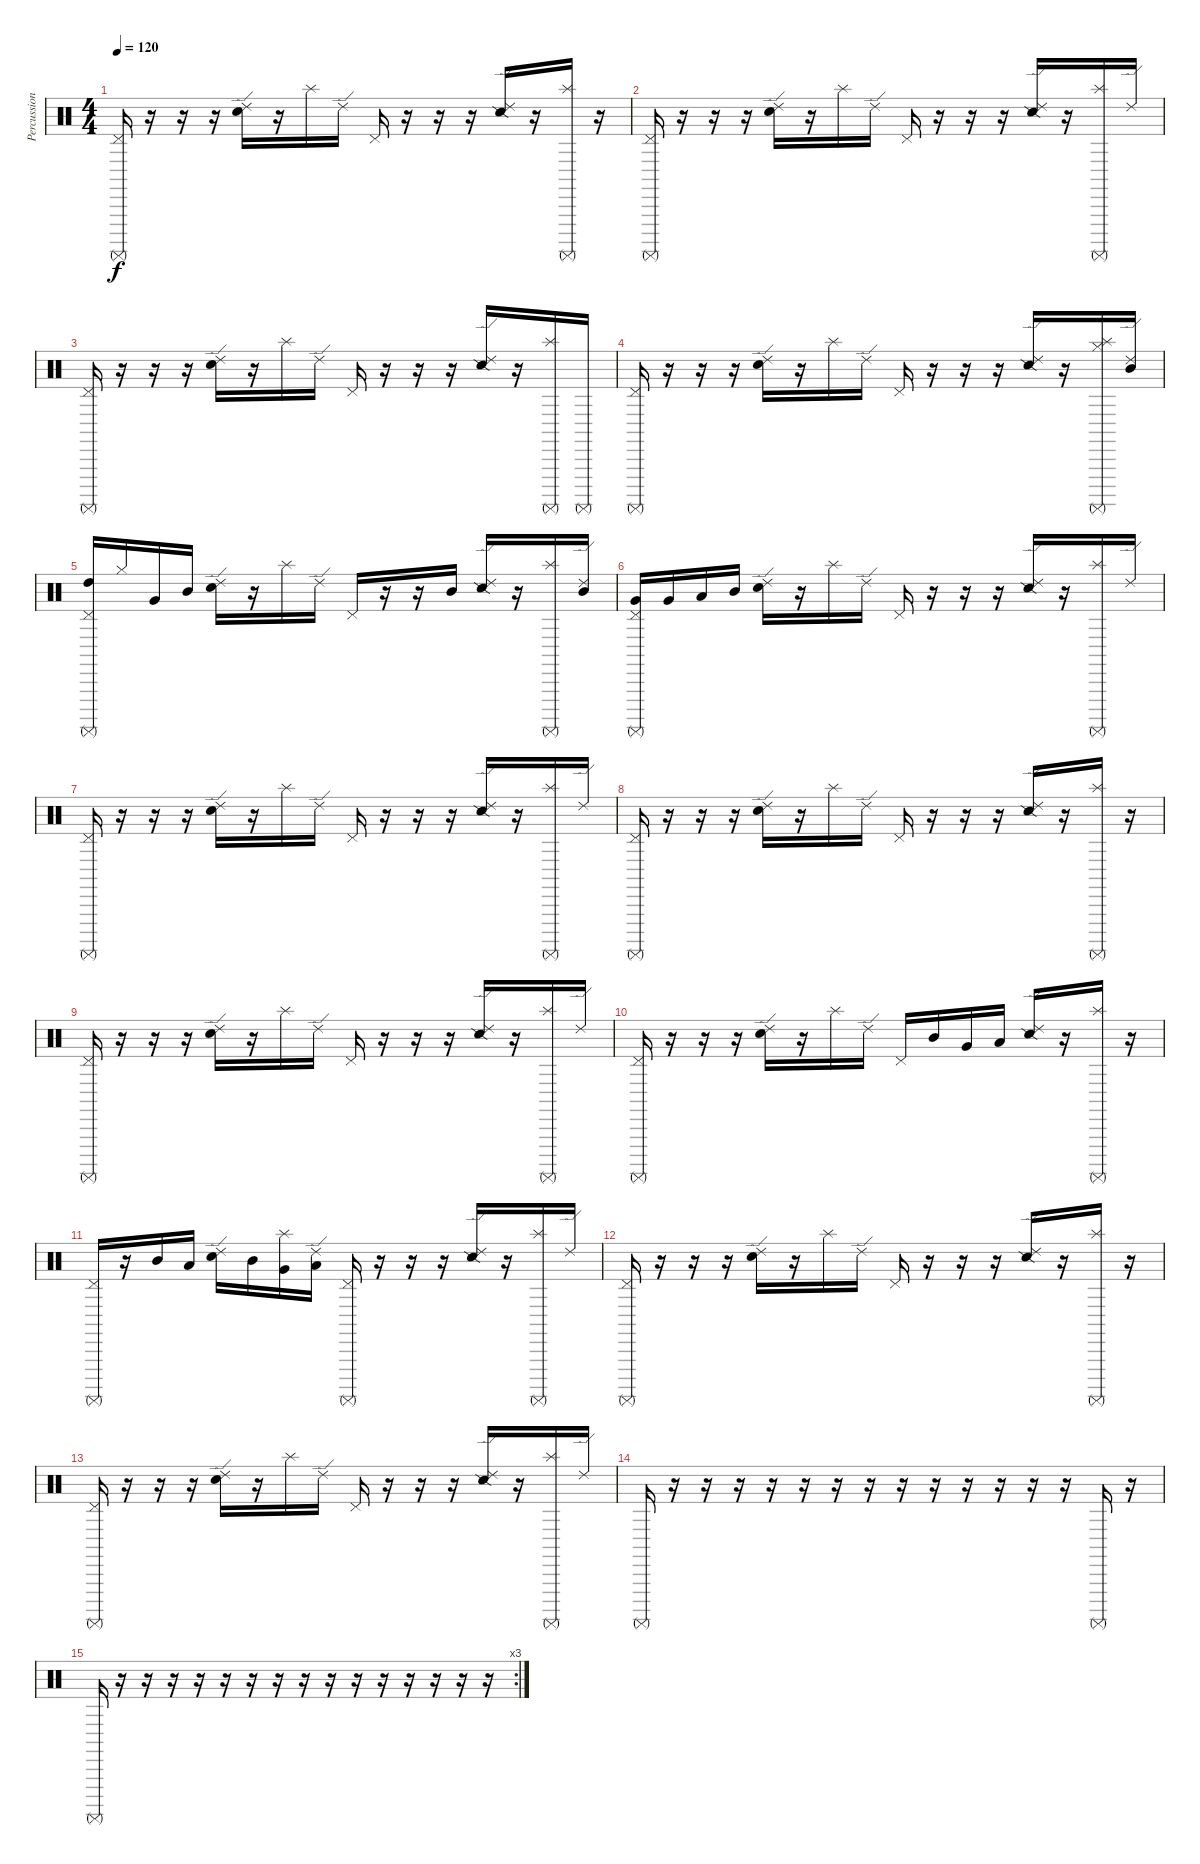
\track ("Percussions" "Percussion") {instrument percussion}
\staff {score}
\articulation defaults
\ts (4 4)
\tempo 120
\clef neutral
\ks c
("Surdo (mute)" "Pedal Hi-Hat (hit)").16{dy f} r.16 r.16 r.16 ("Metronome (bell)" "Ride (edge) 2").16 r.16 "Splash (hit)".16 "Ride (edge) 2".16 "Pedal Hi-Hat (hit)".16 r.16 r.16 r.16 ("Snare (side stick) 2" "Ride (edge) 2").16 r.16 ("Surdo (mute)" "Splash (hit)").16 r.16 |
("Surdo (mute)" "Pedal Hi-Hat (hit)").16 r.16 r.16 r.16 ("Metronome (bell)" "Ride (edge) 2").16 r.16 "Splash (hit)".16 "Ride (edge) 2".16 "Pedal Hi-Hat (hit)".16 r.16 r.16 r.16 ("Snare (side stick) 2" "Ride (edge) 2").16 r.16 ("Surdo (mute)" "Splash (hit)").16 "Ride (edge) 2".16 |
("Surdo (mute)" "Pedal Hi-Hat (hit)").16 r.16 r.16 r.16 ("Metronome (bell)" "Ride (edge) 2").16 r.16 "Splash (hit)".16 "Ride (edge) 2".16 "Pedal Hi-Hat (hit)".16 r.16 r.16 r.16 ("Snare (side stick) 2" "Ride (edge) 2").16 r.16 ("Surdo (mute)" "Splash (hit)").16 "Surdo (mute)".16 |
("Surdo (mute)" "Pedal Hi-Hat (hit)").16 r.16 r.16 r.16 ("Metronome (bell)" "Ride (edge) 2").16 r.16 "Splash (hit)".16 "Ride (edge) 2".16 "Pedal Hi-Hat (hit)".16 r.16 r.16 r.16 ("Snare (side stick) 2" "Ride (edge) 2").16 r.16 ("Surdo (mute)" "Hi-Hat (closed)" "Splash (hit)").16 ("Mid Tom (hit)" "Ride (edge) 2").16 |
("Surdo (mute)" "High Tom (hit)" "Pedal Hi-Hat (hit)").16 "Hi-Hat (closed)".16 "Very Low Tom (hit)".16 "Mid Tom (hit)".16 ("Metronome (bell)" "Ride (edge) 2").16 r.16 "Splash (hit)".16 "Ride (edge) 2".16 "Pedal Hi-Hat (hit)".16 r.16 r.16 "Mid Tom (hit)".16 ("Snare (side stick) 2" "Ride (edge) 2").16 r.16 ("Surdo (mute)" "Splash (hit)").16 ("Mid Tom (hit)" "Ride (edge) 2").16 |
("Surdo (mute)" "Very Low Tom (hit)" "Pedal Hi-Hat (hit)").16 "Very Low Tom (hit)".16 "Low Floor Tom (hit)".16 "Mid Tom (hit)".16 ("Metronome (bell)" "Ride (edge) 2").16 r.16 "Splash (hit)".16 "Ride (edge) 2".16 "Pedal Hi-Hat (hit)".16 r.16 r.16 r.16 ("Snare (side stick) 2" "Ride (edge) 2").16 r.16 ("Surdo (mute)" "Splash (hit)").16 "Ride (edge) 2".16 |
("Surdo (mute)" "Pedal Hi-Hat (hit)").16 r.16 r.16 r.16 ("Metronome (bell)" "Ride (edge) 2").16 r.16 "Splash (hit)".16 "Ride (edge) 2".16 "Pedal Hi-Hat (hit)".16 r.16 r.16 r.16 ("Snare (side stick) 2" "Ride (edge) 2").16 r.16 ("Surdo (mute)" "Splash (hit)").16 "Ride (edge) 2".16 |
("Surdo (mute)" "Pedal Hi-Hat (hit)").16 r.16 r.16 r.16 ("Metronome (bell)" "Ride (edge) 2").16 r.16 "Splash (hit)".16 "Ride (edge) 2".16 "Pedal Hi-Hat (hit)".16 r.16 r.16 r.16 ("Snare (side stick) 2" "Ride (edge) 2").16 r.16 ("Surdo (mute)" "Splash (hit)").16 r.16 |
("Surdo (mute)" "Pedal Hi-Hat (hit)").16 r.16 r.16 r.16 ("Metronome (bell)" "Ride (edge) 2").16 r.16 "Splash (hit)".16 "Ride (edge) 2".16 "Pedal Hi-Hat (hit)".16 r.16 r.16 r.16 ("Snare (side stick) 2" "Ride (edge) 2").16 r.16 ("Surdo (mute)" "Splash (hit)").16 "Ride (edge) 2".16 |
("Surdo (mute)" "Pedal Hi-Hat (hit)").16 r.16 r.16 r.16 ("Metronome (bell)" "Ride (edge) 2").16 r.16 "Splash (hit)".16 "Ride (edge) 2".16 "Pedal Hi-Hat (hit)".16 "Mid Tom (hit)".16 "Very Low Tom (hit)".16 "Low Floor Tom (hit)".16 ("Snare (side stick) 2" "Ride (edge) 2").16 r.16 ("Surdo (mute)" "Splash (hit)").16 r.16 |
("Surdo (mute)" "Pedal Hi-Hat (hit)").16 r.16 "Mid Tom (hit)".16 "Low Floor Tom (hit)".16 ("Metronome (bell)" "Ride (edge) 2").16 "Mid Tom (hit)".16 ("Very Low Tom (hit)" "Splash (hit)").16 ("Low Floor Tom (hit)" "Ride (edge) 2").16 ("Surdo (mute)" "Pedal Hi-Hat (hit)").16 r.16 r.16 r.16 ("Snare (side stick) 2" "Ride (edge) 2").16 r.16 ("Surdo (mute)" "Splash (hit)").16 "Ride (edge) 2".16 |
("Surdo (mute)" "Pedal Hi-Hat (hit)").16 r.16 r.16 r.16 ("Metronome (bell)" "Ride (edge) 2").16 r.16 "Splash (hit)".16 "Ride (edge) 2".16 "Pedal Hi-Hat (hit)".16 r.16 r.16 r.16 ("Snare (side stick) 2" "Ride (edge) 2").16 r.16 ("Surdo (mute)" "Splash (hit)").16 r.16 |
("Surdo (mute)" "Pedal Hi-Hat (hit)").16 r.16 r.16 r.16 ("Metronome (bell)" "Ride (edge) 2").16 r.16 "Splash (hit)".16 "Ride (edge) 2".16 "Pedal Hi-Hat (hit)".16 r.16 r.16 r.16 ("Snare (side stick) 2" "Ride (edge) 2").16 r.16 ("Surdo (mute)" "Splash (hit)").16 "Ride (edge) 2".16 |
"Surdo (mute)".16 r.16 r.16 r.16 r.16 r.16 r.16 r.16 r.16 r.16 r.16 r.16 r.16 r.16 "Surdo (mute)".16 r.16 |
\rc 3 "Surdo (mute)".16
r.16 r.16 r.16 r.16 r.16 r.16 r.16 r.16 r.16 r.16 r.16 r.16 r.16 r.16 r.16
